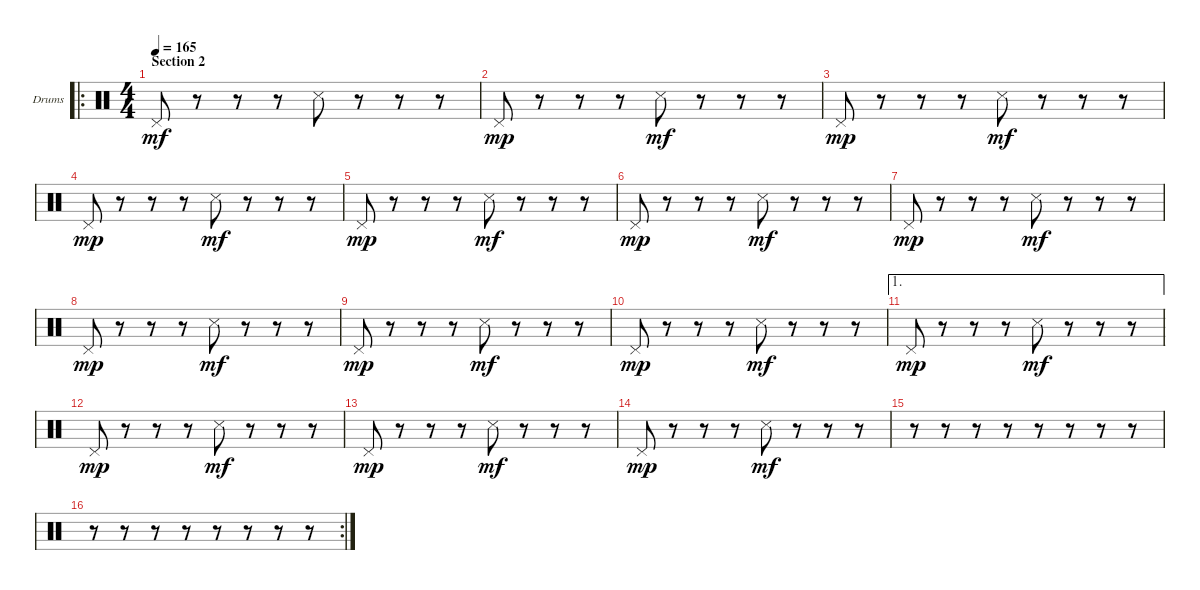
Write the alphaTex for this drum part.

\bracketExtendMode groupsimilarinstruments
\firstSystemTrackNameOrientation horizontal
\otherSystemsTrackNameOrientation horizontal
\track ("Drumkit" "Drums") {instrument percussion}
\staff {score}
\articulation defaults
\ro
\ts (4 4)
\section ("" "Section 2")
\tempo 165
\clef neutral
\ks c "Pedal Hi-Hat (hit)".8{dy mf}
r.8 r.8 r.8 "Snare (side stick) 3".8 r.8 r.8 r.8 |
"Pedal Hi-Hat (hit)".8{dy mp} r.8 r.8 r.8 "Snare (side stick) 3".8{dy mf} r.8 r.8 r.8 |
"Pedal Hi-Hat (hit)".8{dy mp} r.8 r.8 r.8 "Snare (side stick) 3".8{dy mf} r.8 r.8 r.8 |
"Pedal Hi-Hat (hit)".8{dy mp} r.8 r.8 r.8 "Snare (side stick) 3".8{dy mf} r.8 r.8 r.8 |
"Pedal Hi-Hat (hit)".8{dy mp} r.8 r.8 r.8 "Snare (side stick) 3".8{dy mf} r.8 r.8 r.8 |
"Pedal Hi-Hat (hit)".8{dy mp} r.8 r.8 r.8 "Snare (side stick) 3".8{dy mf} r.8 r.8 r.8 |
"Pedal Hi-Hat (hit)".8{dy mp} r.8 r.8 r.8 "Snare (side stick) 3".8{dy mf} r.8 r.8 r.8 |
"Pedal Hi-Hat (hit)".8{dy mp} r.8 r.8 r.8 "Snare (side stick) 3".8{dy mf} r.8 r.8 r.8 |
"Pedal Hi-Hat (hit)".8{dy mp} r.8 r.8 r.8 "Snare (side stick) 3".8{dy mf} r.8 r.8 r.8 |
"Pedal Hi-Hat (hit)".8{dy mp} r.8 r.8 r.8 "Snare (side stick) 3".8{dy mf} r.8 r.8 r.8 |
\ae 1 "Pedal Hi-Hat (hit)".8{dy mp}
r.8 r.8 r.8 "Snare (side stick) 3".8{dy mf} r.8 r.8 r.8 |
"Pedal Hi-Hat (hit)".8{dy mp} r.8 r.8 r.8 "Snare (side stick) 3".8{dy mf} r.8 r.8 r.8 |
"Pedal Hi-Hat (hit)".8{dy mp} r.8 r.8 r.8 "Snare (side stick) 3".8{dy mf} r.8 r.8 r.8 |
"Pedal Hi-Hat (hit)".8{dy mp} r.8 r.8 r.8 "Snare (side stick) 3".8{dy mf} r.8 r.8 r.8 |
r.8 r.8 r.8 r.8 r.8 r.8 r.8 r.8 |
\rc 2
r.8 r.8 r.8 r.8 r.8 r.8 r.8 r.8
